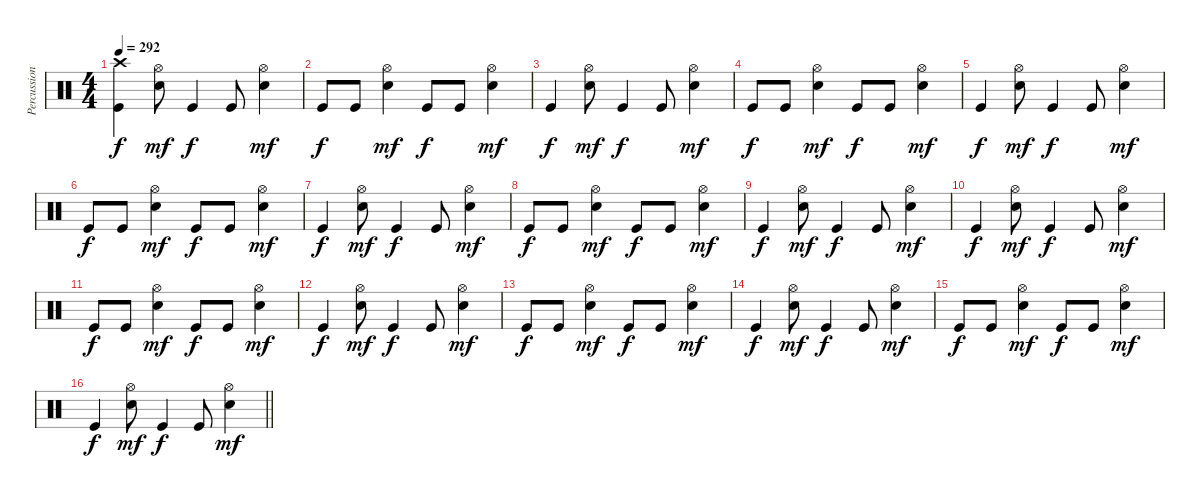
\track ("Percussion" "Percussion") {instrument percussion}
\staff {score}
\articulation defaults
\ts (4 4)
\tempo 292
\clef neutral
\ks c
("Crash high (hit)" "Kick (hit)").4{dy f} ("Hi-Hat (open)" "Electric Snare (hit)").8{dy mf} "Kick (hit)".4{dy f} "Kick (hit)".8 ("Hi-Hat (open)" "Electric Snare (hit)").4{dy mf} |
"Kick (hit)".8{dy f} "Kick (hit)".8 ("Hi-Hat (open)" "Electric Snare (hit)").4{dy mf} "Kick (hit)".8{dy f} "Kick (hit)".8 ("Hi-Hat (open)" "Electric Snare (hit)").4{dy mf} |
"Kick (hit)".4{dy f} ("Hi-Hat (open)" "Electric Snare (hit)").8{dy mf} "Kick (hit)".4{dy f} "Kick (hit)".8 ("Hi-Hat (open)" "Electric Snare (hit)").4{dy mf} |
"Kick (hit)".8{dy f} "Kick (hit)".8 ("Hi-Hat (open)" "Electric Snare (hit)").4{dy mf} "Kick (hit)".8{dy f} "Kick (hit)".8 ("Hi-Hat (open)" "Electric Snare (hit)").4{dy mf} |
"Kick (hit)".4{dy f} ("Hi-Hat (open)" "Electric Snare (hit)").8{dy mf} "Kick (hit)".4{dy f} "Kick (hit)".8 ("Hi-Hat (open)" "Electric Snare (hit)").4{dy mf} |
"Kick (hit)".8{dy f} "Kick (hit)".8 ("Hi-Hat (open)" "Electric Snare (hit)").4{dy mf} "Kick (hit)".8{dy f} "Kick (hit)".8 ("Hi-Hat (open)" "Electric Snare (hit)").4{dy mf} |
"Kick (hit)".4{dy f} ("Hi-Hat (open)" "Electric Snare (hit)").8{dy mf} "Kick (hit)".4{dy f} "Kick (hit)".8 ("Hi-Hat (open)" "Electric Snare (hit)").4{dy mf} |
"Kick (hit)".8{dy f} "Kick (hit)".8 ("Hi-Hat (open)" "Electric Snare (hit)").4{dy mf} "Kick (hit)".8{dy f} "Kick (hit)".8 ("Hi-Hat (open)" "Electric Snare (hit)").4{dy mf} |
"Kick (hit)".4{dy f} ("Hi-Hat (open)" "Electric Snare (hit)").8{dy mf} "Kick (hit)".4{dy f} "Kick (hit)".8 ("Hi-Hat (open)" "Electric Snare (hit)").4{dy mf} |
"Kick (hit)".4{dy f} ("Hi-Hat (open)" "Electric Snare (hit)").8{dy mf} "Kick (hit)".4{dy f} "Kick (hit)".8 ("Hi-Hat (open)" "Electric Snare (hit)").4{dy mf} |
"Kick (hit)".8{dy f} "Kick (hit)".8 ("Hi-Hat (open)" "Electric Snare (hit)").4{dy mf} "Kick (hit)".8{dy f} "Kick (hit)".8 ("Hi-Hat (open)" "Electric Snare (hit)").4{dy mf} |
"Kick (hit)".4{dy f} ("Hi-Hat (open)" "Electric Snare (hit)").8{dy mf} "Kick (hit)".4{dy f} "Kick (hit)".8 ("Hi-Hat (open)" "Electric Snare (hit)").4{dy mf} |
"Kick (hit)".8{dy f} "Kick (hit)".8 ("Hi-Hat (open)" "Electric Snare (hit)").4{dy mf} "Kick (hit)".8{dy f} "Kick (hit)".8 ("Hi-Hat (open)" "Electric Snare (hit)").4{dy mf} |
"Kick (hit)".4{dy f} ("Hi-Hat (open)" "Electric Snare (hit)").8{dy mf} "Kick (hit)".4{dy f} "Kick (hit)".8 ("Hi-Hat (open)" "Electric Snare (hit)").4{dy mf} |
"Kick (hit)".8{dy f} "Kick (hit)".8 ("Hi-Hat (open)" "Electric Snare (hit)").4{dy mf} "Kick (hit)".8{dy f} "Kick (hit)".8 ("Hi-Hat (open)" "Electric Snare (hit)").4{dy mf} |
\barLineRight lightlight "Kick (hit)".4{dy f}
("Hi-Hat (open)" "Electric Snare (hit)").8{dy mf} "Kick (hit)".4{dy f} "Kick (hit)".8 ("Hi-Hat (open)" "Electric Snare (hit)").4{dy mf}
